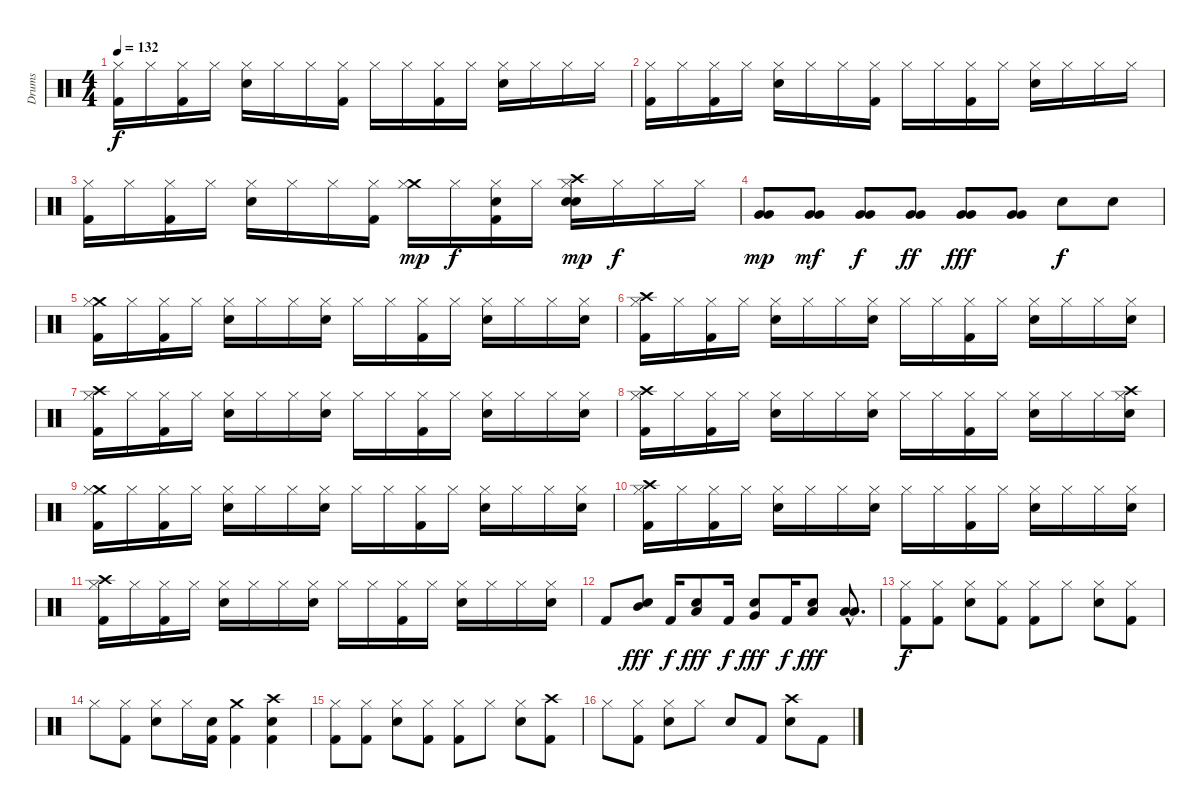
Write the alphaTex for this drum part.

\track ("Drums" "Drums") {instrument percussion}
\staff {score}
\articulation defaults
\ts (4 4)
\tempo 132
\clef neutral
\ks c
("Kick (hit) 2" "Hi-Hat (closed)").16{dy f} "Hi-Hat (closed)".16 ("Kick (hit) 2" "Hi-Hat (closed)").16 "Hi-Hat (closed)".16 ("Hi-Hat (closed)" "Snare (hit) 2").16 "Hi-Hat (closed)".16 "Hi-Hat (closed)".16 ("Kick (hit) 2" "Hi-Hat (closed)").16 "Hi-Hat (closed)".16 "Hi-Hat (closed)".16 ("Kick (hit) 2" "Hi-Hat (closed)").16 "Hi-Hat (closed)".16 ("Hi-Hat (closed)" "Snare (hit) 2").16 "Hi-Hat (closed)".16 "Hi-Hat (closed)".16 "Hi-Hat (closed)".16 |
("Kick (hit) 2" "Hi-Hat (closed)").16 "Hi-Hat (closed)".16 ("Kick (hit) 2" "Hi-Hat (closed)").16 "Hi-Hat (closed)".16 ("Hi-Hat (closed)" "Snare (hit) 2").16 "Hi-Hat (closed)".16 "Hi-Hat (closed)".16 ("Kick (hit) 2" "Hi-Hat (closed)").16 "Hi-Hat (closed)".16 "Hi-Hat (closed)".16 ("Kick (hit) 2" "Hi-Hat (closed)").16 "Hi-Hat (closed)".16 ("Hi-Hat (closed)" "Snare (hit) 2").16 "Hi-Hat (closed)".16 "Hi-Hat (closed)".16 "Hi-Hat (closed)".16 |
("Kick (hit) 2" "Hi-Hat (closed)").16 "Hi-Hat (closed)".16 ("Kick (hit) 2" "Hi-Hat (closed)").16 "Hi-Hat (closed)".16 ("Hi-Hat (closed)" "Snare (hit) 2").16 "Hi-Hat (closed)".16 "Hi-Hat (closed)".16 ("Kick (hit) 2" "Hi-Hat (closed)").16 ("Crash medium (hit)" "Hi-Hat (closed)").16{dy mp} "Hi-Hat (closed)".16{dy f} ("Kick (hit) 2" "Hi-Hat (closed)" "Hand Clap (hit)").16 "Hi-Hat (closed)".16 ("Crash high (hit)" "Hi-Hat (closed)" "Snare (hit) 2" "Hand Clap (hit)").16{dy mp} "Hi-Hat (closed)".16{dy f} "Hi-Hat (closed)".16 "Hi-Hat (closed)".16 |
("Very Low Tom (hit)" "Very Low Tom (hit)").8{dy mp} ("Very Low Tom (hit)" "Very Low Tom (hit)").8{dy mf} ("Very Low Tom (hit)" "Very Low Tom (hit)").8{dy f} ("Very Low Tom (hit)" "Very Low Tom (hit)").8{dy ff} ("Very Low Tom (hit)" "Very Low Tom (hit)").8{dy fff} ("Very Low Tom (hit)" "Very Low Tom (hit)").8 "Snare (hit) 2".8{dy f} "Snare (hit) 2".8 |
("Kick (hit) 2" "Crash medium (hit)" "Hi-Hat (closed)").16 "Hi-Hat (closed)".16 ("Kick (hit) 2" "Hi-Hat (closed)").16 "Hi-Hat (closed)".16 ("Hi-Hat (closed)" "Snare (hit) 2").16 "Hi-Hat (closed)".16 "Hi-Hat (closed)".16 ("Hi-Hat (closed)" "Snare (hit) 2").16 "Hi-Hat (closed)".16 "Hi-Hat (closed)".16 ("Kick (hit) 2" "Hi-Hat (closed)").16 "Hi-Hat (closed)".16 ("Hi-Hat (closed)" "Snare (hit) 2").16 "Hi-Hat (closed)".16 "Hi-Hat (closed)".16 ("Hi-Hat (closed)" "Snare (hit) 2").16 |
("Kick (hit) 2" "Crash high (hit)" "Hi-Hat (closed)").16 "Hi-Hat (closed)".16 ("Kick (hit) 2" "Hi-Hat (closed)").16 "Hi-Hat (closed)".16 ("Hi-Hat (closed)" "Snare (hit) 2").16 "Hi-Hat (closed)".16 "Hi-Hat (closed)".16 ("Hi-Hat (closed)" "Snare (hit) 2").16 "Hi-Hat (closed)".16 "Hi-Hat (closed)".16 ("Kick (hit) 2" "Hi-Hat (closed)").16 "Hi-Hat (closed)".16 ("Hi-Hat (closed)" "Snare (hit) 2").16 "Hi-Hat (closed)".16 "Hi-Hat (closed)".16 ("Hi-Hat (closed)" "Snare (hit) 2").16 |
("Kick (hit) 2" "Crash high (hit)" "Hi-Hat (closed)").16 "Hi-Hat (closed)".16 ("Kick (hit) 2" "Hi-Hat (closed)").16 "Hi-Hat (closed)".16 ("Hi-Hat (closed)" "Snare (hit) 2").16 "Hi-Hat (closed)".16 "Hi-Hat (closed)".16 ("Hi-Hat (closed)" "Snare (hit) 2").16 "Hi-Hat (closed)".16 "Hi-Hat (closed)".16 ("Kick (hit) 2" "Hi-Hat (closed)").16 "Hi-Hat (closed)".16 ("Hi-Hat (closed)" "Snare (hit) 2").16 "Hi-Hat (closed)".16 "Hi-Hat (closed)".16 ("Hi-Hat (closed)" "Snare (hit) 2").16 |
("Kick (hit) 2" "Crash high (hit)" "Hi-Hat (closed)").16 "Hi-Hat (closed)".16 ("Kick (hit) 2" "Hi-Hat (closed)").16 "Hi-Hat (closed)".16 ("Hi-Hat (closed)" "Snare (hit) 2").16 "Hi-Hat (closed)".16 "Hi-Hat (closed)".16 ("Hi-Hat (closed)" "Snare (hit) 2").16 "Hi-Hat (closed)".16 "Hi-Hat (closed)".16 ("Kick (hit) 2" "Hi-Hat (closed)").16 "Hi-Hat (closed)".16 ("Hi-Hat (closed)" "Snare (hit) 2").16 "Hi-Hat (closed)".16 "Hi-Hat (closed)".16 ("Crash high (hit)" "Hi-Hat (closed)" "Snare (hit) 2").16 |
("Kick (hit) 2" "Crash medium (hit)" "Hi-Hat (closed)").16 "Hi-Hat (closed)".16 ("Kick (hit) 2" "Hi-Hat (closed)").16 "Hi-Hat (closed)".16 ("Hi-Hat (closed)" "Snare (hit) 2").16 "Hi-Hat (closed)".16 "Hi-Hat (closed)".16 ("Hi-Hat (closed)" "Snare (hit) 2").16 "Hi-Hat (closed)".16 "Hi-Hat (closed)".16 ("Kick (hit) 2" "Hi-Hat (closed)").16 "Hi-Hat (closed)".16 ("Hi-Hat (closed)" "Snare (hit) 2").16 "Hi-Hat (closed)".16 "Hi-Hat (closed)".16 ("Hi-Hat (closed)" "Snare (hit) 2").16 |
("Kick (hit) 2" "Crash high (hit)" "Hi-Hat (closed)").16 "Hi-Hat (closed)".16 ("Kick (hit) 2" "Hi-Hat (closed)").16 "Hi-Hat (closed)".16 ("Hi-Hat (closed)" "Snare (hit) 2").16 "Hi-Hat (closed)".16 "Hi-Hat (closed)".16 ("Hi-Hat (closed)" "Snare (hit) 2").16 "Hi-Hat (closed)".16 "Hi-Hat (closed)".16 ("Kick (hit) 2" "Hi-Hat (closed)").16 "Hi-Hat (closed)".16 ("Hi-Hat (closed)" "Snare (hit) 2").16 "Hi-Hat (closed)".16 "Hi-Hat (closed)".16 ("Hi-Hat (closed)" "Snare (hit) 2").16 |
("Kick (hit) 2" "Crash high (hit)" "Hi-Hat (closed)").16 "Hi-Hat (closed)".16 ("Kick (hit) 2" "Hi-Hat (closed)").16 "Hi-Hat (closed)".16 ("Hi-Hat (closed)" "Snare (hit) 2").16 "Hi-Hat (closed)".16 "Hi-Hat (closed)".16 ("Hi-Hat (closed)" "Snare (hit) 2").16 "Hi-Hat (closed)".16 "Hi-Hat (closed)".16 ("Kick (hit) 2" "Hi-Hat (closed)").16 "Hi-Hat (closed)".16 ("Hi-Hat (closed)" "Snare (hit) 2").16 "Hi-Hat (closed)".16 "Hi-Hat (closed)".16 ("Hi-Hat (closed)" "Snare (hit) 2").16 |
"Kick (hit) 2".8 ("Mid Tom (hit)" "Snare (hit) 2").8{dy fff} "Kick (hit) 2".16{dy f} ("Low Tom (hit)" "Snare (hit) 2").8{dy fff} "Kick (hit) 2".16{dy f} ("Very Low Tom (hit)" "Snare (hit) 2").8{dy fff} "Kick (hit) 2".16{dy f} ("Low Floor Tom (hit)" "Snare (hit) 2").8{dy fff} ("Low Floor Tom (hit)"{hac} "Low Floor Tom (hit)"{hac}).8{d} |
("Kick (hit) 2" "Hi-Hat (closed)").8{dy f} ("Kick (hit) 2" "Hi-Hat (closed)").8 ("Hi-Hat (closed)" "Snare (hit) 2").8 ("Kick (hit) 2" "Hi-Hat (closed)").8 ("Kick (hit) 2" "Hi-Hat (closed)").8 "Hi-Hat (closed)".8 ("Hi-Hat (closed)" "Snare (hit) 2").8 ("Kick (hit) 2" "Hi-Hat (closed)").8 |
"Hi-Hat (closed)".8 ("Kick (hit) 2" "Hi-Hat (closed)").8 ("Hi-Hat (closed)" "Snare (hit) 2").8 "Hi-Hat (closed)".16 ("Kick (hit) 2" "Snare (hit) 2").16 ("Kick (hit) 2" "Crash medium (hit)").4 ("Kick (hit) 2" "Crash high (hit)" "Snare (hit) 2").4 |
("Kick (hit) 2" "Hi-Hat (closed)").8 ("Kick (hit) 2" "Hi-Hat (closed)").8 ("Hi-Hat (closed)" "Snare (hit) 2").8 ("Kick (hit) 2" "Hi-Hat (closed)").8 ("Kick (hit) 2" "Hi-Hat (closed)").8 "Hi-Hat (closed)".8 ("Hi-Hat (closed)" "Snare (hit) 2").8 ("Kick (hit) 2" "Crash high (hit)").8 |
"Hi-Hat (closed)".8 ("Kick (hit) 2" "Hi-Hat (closed)").8 ("Hi-Hat (closed)" "Snare (hit) 2").8 "Hi-Hat (closed)".8 "Snare (hit) 2".8 "Kick (hit) 2".8 ("Crash high (hit)" "Snare (hit) 2").8 "Kick (hit) 2".8
